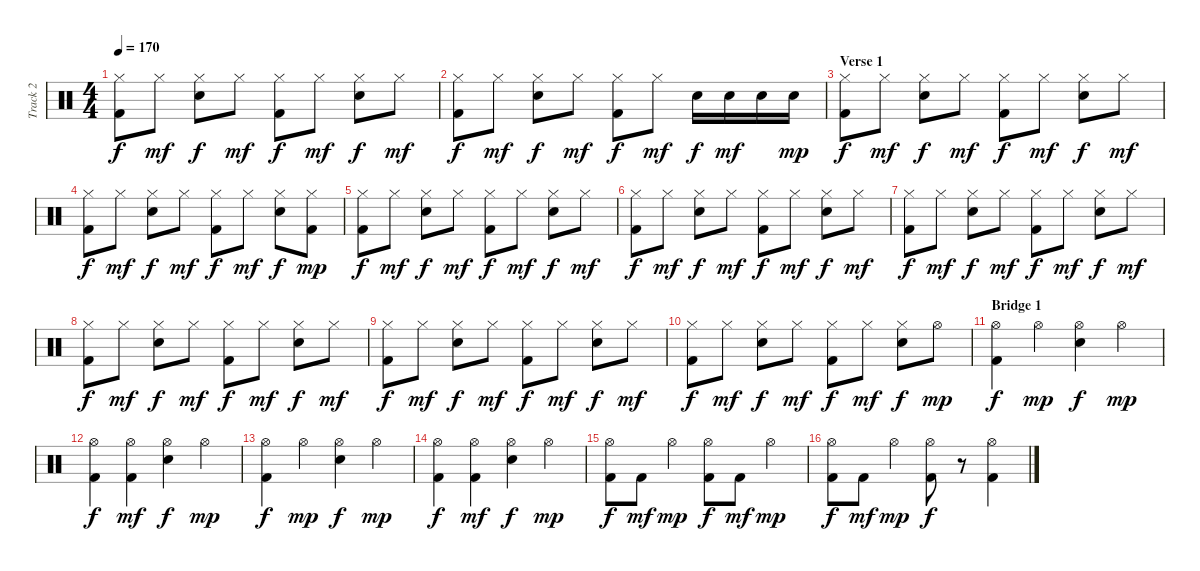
\track ("Track 2" "Track 2") {instrument percussion}
\staff {score}
\articulation defaults
\ts (4 4)
\tempo 170
\clef neutral
\ks c
("Hi-Hat (closed)" "Kick (hit) 2").8{dy f} "Hi-Hat (closed)".8{dy mf} ("Hi-Hat (closed)" "Electric Snare (hit)").8{dy f} "Hi-Hat (closed)".8{dy mf} ("Hi-Hat (closed)" "Kick (hit) 2").8{dy f} "Hi-Hat (closed)".8{dy mf} ("Hi-Hat (closed)" "Electric Snare (hit)").8{dy f} "Hi-Hat (closed)".8{dy mf} |
("Hi-Hat (closed)" "Kick (hit) 2").8{dy f} "Hi-Hat (closed)".8{dy mf} ("Hi-Hat (closed)" "Electric Snare (hit)").8{dy f} "Hi-Hat (closed)".8{dy mf} ("Hi-Hat (closed)" "Kick (hit) 2").8{dy f} "Hi-Hat (closed)".8{dy mf} "Electric Snare (hit)".16{dy f} "Electric Snare (hit)".16{dy mf} "Electric Snare (hit)".16 "Electric Snare (hit)".16{dy mp} |
\section ("" "Verse 1")
("Hi-Hat (closed)" "Kick (hit) 2").8{dy f} "Hi-Hat (closed)".8{dy mf} ("Hi-Hat (closed)" "Electric Snare (hit)").8{dy f} "Hi-Hat (closed)".8{dy mf} ("Hi-Hat (closed)" "Kick (hit) 2").8{dy f} "Hi-Hat (closed)".8{dy mf} ("Hi-Hat (closed)" "Electric Snare (hit)").8{dy f} "Hi-Hat (closed)".8{dy mf} |
("Hi-Hat (closed)" "Kick (hit) 2").8{dy f} "Hi-Hat (closed)".8{dy mf} ("Hi-Hat (closed)" "Electric Snare (hit)").8{dy f} "Hi-Hat (closed)".8{dy mf} ("Hi-Hat (closed)" "Kick (hit) 2").8{dy f} "Hi-Hat (closed)".8{dy mf} ("Hi-Hat (closed)" "Electric Snare (hit)").8{dy f} ("Hi-Hat (closed)" "Kick (hit) 2").8{dy mp} |
("Hi-Hat (closed)" "Kick (hit) 2").8{dy f} "Hi-Hat (closed)".8{dy mf} ("Hi-Hat (closed)" "Electric Snare (hit)").8{dy f} "Hi-Hat (closed)".8{dy mf} ("Hi-Hat (closed)" "Kick (hit) 2").8{dy f} "Hi-Hat (closed)".8{dy mf} ("Hi-Hat (closed)" "Electric Snare (hit)").8{dy f} "Hi-Hat (closed)".8{dy mf} |
("Hi-Hat (closed)" "Kick (hit) 2").8{dy f} "Hi-Hat (closed)".8{dy mf} ("Hi-Hat (closed)" "Electric Snare (hit)").8{dy f} "Hi-Hat (closed)".8{dy mf} ("Hi-Hat (closed)" "Kick (hit) 2").8{dy f} "Hi-Hat (closed)".8{dy mf} ("Hi-Hat (closed)" "Electric Snare (hit)").8{dy f} "Hi-Hat (closed)".8{dy mf} |
("Hi-Hat (closed)" "Kick (hit) 2").8{dy f} "Hi-Hat (closed)".8{dy mf} ("Hi-Hat (closed)" "Electric Snare (hit)").8{dy f} "Hi-Hat (closed)".8{dy mf} ("Hi-Hat (closed)" "Kick (hit) 2").8{dy f} "Hi-Hat (closed)".8{dy mf} ("Hi-Hat (closed)" "Electric Snare (hit)").8{dy f} "Hi-Hat (closed)".8{dy mf} |
("Hi-Hat (closed)" "Kick (hit) 2").8{dy f} "Hi-Hat (closed)".8{dy mf} ("Hi-Hat (closed)" "Electric Snare (hit)").8{dy f} "Hi-Hat (closed)".8{dy mf} ("Hi-Hat (closed)" "Kick (hit) 2").8{dy f} "Hi-Hat (closed)".8{dy mf} ("Hi-Hat (closed)" "Electric Snare (hit)").8{dy f} "Hi-Hat (closed)".8{dy mf} |
("Hi-Hat (closed)" "Kick (hit) 2").8{dy f} "Hi-Hat (closed)".8{dy mf} ("Hi-Hat (closed)" "Electric Snare (hit)").8{dy f} "Hi-Hat (closed)".8{dy mf} ("Hi-Hat (closed)" "Kick (hit) 2").8{dy f} "Hi-Hat (closed)".8{dy mf} ("Hi-Hat (closed)" "Electric Snare (hit)").8{dy f} "Hi-Hat (closed)".8{dy mf} |
("Hi-Hat (closed)" "Kick (hit) 2").8{dy f} "Hi-Hat (closed)".8{dy mf} ("Hi-Hat (closed)" "Electric Snare (hit)").8{dy f} "Hi-Hat (closed)".8{dy mf} ("Hi-Hat (closed)" "Kick (hit) 2").8{dy f} "Hi-Hat (closed)".8{dy mf} ("Hi-Hat (closed)" "Electric Snare (hit)").8{dy f} "Hi-Hat (open)".8{dy mp} |
\section ("" "Bridge 1")
("Hi-Hat (open)" "Kick (hit) 2").4{dy f} "Hi-Hat (open)".4{dy mp} ("Hi-Hat (open)" "Electric Snare (hit)").4{dy f} "Hi-Hat (open)".4{dy mp} |
("Hi-Hat (open)" "Kick (hit) 2").4{dy f} ("Hi-Hat (open)" "Kick (hit) 2").4{dy mf} ("Hi-Hat (open)" "Electric Snare (hit)").4{dy f} "Hi-Hat (open)".4{dy mp} |
("Hi-Hat (open)" "Kick (hit) 2").4{dy f} "Hi-Hat (open)".4{dy mp} ("Hi-Hat (open)" "Electric Snare (hit)").4{dy f} "Hi-Hat (open)".4{dy mp} |
("Hi-Hat (open)" "Kick (hit) 2").4{dy f} ("Hi-Hat (open)" "Kick (hit) 2").4{dy mf} ("Hi-Hat (open)" "Electric Snare (hit)").4{dy f} "Hi-Hat (open)".4{dy mp} |
("Hi-Hat (open)" "Kick (hit) 2").8{dy f} "Kick (hit) 2".8{dy mf} "Hi-Hat (open)".4{dy mp} ("Hi-Hat (open)" "Kick (hit) 2").8{dy f} "Kick (hit) 2".8{dy mf} "Hi-Hat (open)".4{dy mp} |
("Hi-Hat (open)" "Kick (hit) 2").8{dy f} "Kick (hit) 2".8{dy mf} "Hi-Hat (open)".4{dy mp} ("Hi-Hat (open)" "Kick (hit) 2").8{dy f} r.8 ("Hi-Hat (open)" "Kick (hit) 2").4
